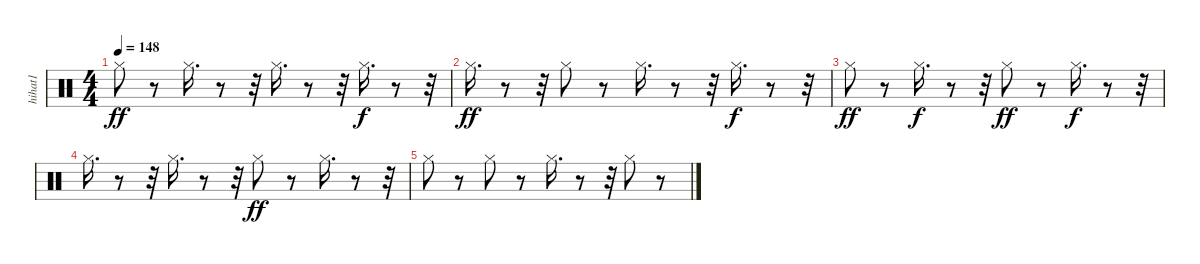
\track ("hihat1              " "hihat1    ") {instrument percussion}
\staff {score}
\articulation defaults
\ts (4 4)
\tempo 148
\clef neutral
\ks c "Hi-Hat (closed)".8{dy ff}
r.8 "Hi-Hat (closed)".16{d} r.8 r.32 "Hi-Hat (closed)".16{d} r.8 r.32 "Hi-Hat (closed)".16{d dy f} r.8 r.32 |
"Hi-Hat (closed)".16{d dy ff} r.8 r.32 "Hi-Hat (closed)".8 r.8 "Hi-Hat (closed)".16{d} r.8 r.32 "Hi-Hat (closed)".16{d dy f} r.8 r.32 |
"Hi-Hat (closed)".8{dy ff} r.8 "Hi-Hat (closed)".16{d dy f} r.8 r.32 "Hi-Hat (closed)".8{dy ff} r.8 "Hi-Hat (closed)".16{d dy f} r.8 r.32 |
"Hi-Hat (closed)".16{d} r.8 r.32 "Hi-Hat (closed)".16{d} r.8 r.32 "Hi-Hat (closed)".8{dy ff} r.8 "Hi-Hat (closed)".16{d} r.8 r.32 |
"Hi-Hat (closed)".8 r.8 "Hi-Hat (closed)".8 r.8 "Hi-Hat (closed)".16{d} r.8 r.32 "Hi-Hat (closed)".8 r.8
